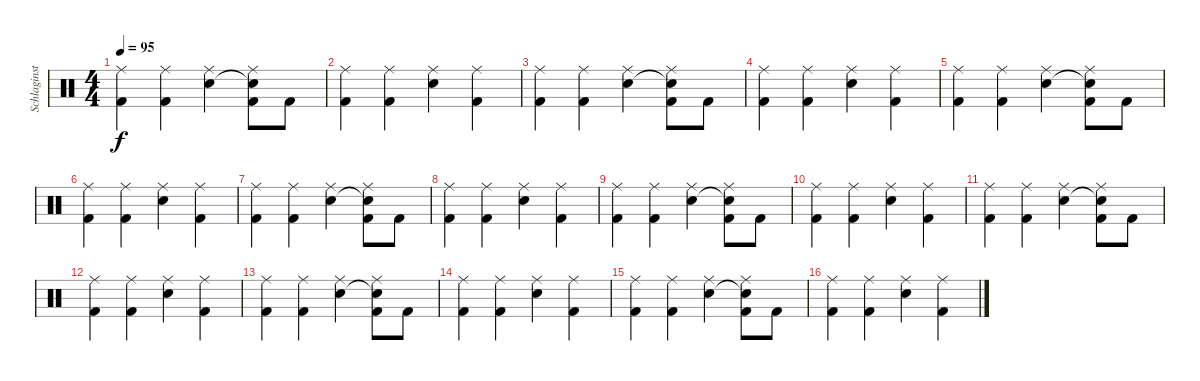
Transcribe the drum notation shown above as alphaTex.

\track ("Schlaginstrumente - Auswahl" "Schlaginst") {instrument percussion}
\staff {score}
\articulation defaults
\ts (4 4)
\tempo 95
\clef neutral
\ks c
("Ride (middle)" "Kick (hit) 2").4{dy f} ("Ride (middle)" "Kick (hit) 2").4 ("Ride (middle)" "Electric Snare (hit)").4 ("Ride (middle)" "Snare (hit)"{t} "Kick (hit) 2").8 "Kick (hit) 2".8 |
("Ride (middle)" "Kick (hit) 2").4 ("Ride (middle)" "Kick (hit) 2").4 ("Ride (middle)" "Electric Snare (hit)").4 ("Ride (middle)" "Kick (hit) 2").4 |
("Ride (middle)" "Kick (hit) 2").4 ("Ride (middle)" "Kick (hit) 2").4 ("Ride (middle)" "Electric Snare (hit)").4 ("Ride (middle)" "Snare (hit)"{t} "Kick (hit) 2").8 "Kick (hit) 2".8 |
("Ride (middle)" "Kick (hit) 2").4 ("Ride (middle)" "Kick (hit) 2").4 ("Ride (middle)" "Electric Snare (hit)").4 ("Ride (middle)" "Kick (hit) 2").4 |
("Ride (middle)" "Kick (hit) 2").4 ("Ride (middle)" "Kick (hit) 2").4 ("Ride (middle)" "Electric Snare (hit)").4 ("Ride (middle)" "Snare (hit)"{t} "Kick (hit) 2").8 "Kick (hit) 2".8 |
("Ride (middle)" "Kick (hit) 2").4 ("Ride (middle)" "Kick (hit) 2").4 ("Ride (middle)" "Electric Snare (hit)").4 ("Ride (middle)" "Kick (hit) 2").4 |
("Ride (middle)" "Kick (hit) 2").4 ("Ride (middle)" "Kick (hit) 2").4 ("Ride (middle)" "Electric Snare (hit)").4 ("Ride (middle)" "Snare (hit)"{t} "Kick (hit) 2").8 "Kick (hit) 2".8 |
("Ride (middle)" "Kick (hit) 2").4 ("Ride (middle)" "Kick (hit) 2").4 ("Ride (middle)" "Electric Snare (hit)").4 ("Ride (middle)" "Kick (hit) 2").4 |
("Ride (middle)" "Kick (hit) 2").4 ("Ride (middle)" "Kick (hit) 2").4 ("Ride (middle)" "Electric Snare (hit)").4 ("Ride (middle)" "Snare (hit)"{t} "Kick (hit) 2").8 "Kick (hit) 2".8 |
("Ride (middle)" "Kick (hit) 2").4 ("Ride (middle)" "Kick (hit) 2").4 ("Ride (middle)" "Electric Snare (hit)").4 ("Ride (middle)" "Kick (hit) 2").4 |
("Ride (middle)" "Kick (hit) 2").4 ("Ride (middle)" "Kick (hit) 2").4 ("Ride (middle)" "Electric Snare (hit)").4 ("Ride (middle)" "Snare (hit)"{t} "Kick (hit) 2").8 "Kick (hit) 2".8 |
("Ride (middle)" "Kick (hit) 2").4 ("Ride (middle)" "Kick (hit) 2").4 ("Ride (middle)" "Electric Snare (hit)").4 ("Ride (middle)" "Kick (hit) 2").4 |
("Ride (middle)" "Kick (hit) 2").4 ("Ride (middle)" "Kick (hit) 2").4 ("Ride (middle)" "Electric Snare (hit)").4 ("Ride (middle)" "Snare (hit)"{t} "Kick (hit) 2").8 "Kick (hit) 2".8 |
("Ride (middle)" "Kick (hit) 2").4 ("Ride (middle)" "Kick (hit) 2").4 ("Ride (middle)" "Electric Snare (hit)").4 ("Ride (middle)" "Kick (hit) 2").4 |
("Ride (middle)" "Kick (hit) 2").4 ("Ride (middle)" "Kick (hit) 2").4 ("Ride (middle)" "Electric Snare (hit)").4 ("Ride (middle)" "Snare (hit)"{t} "Kick (hit) 2").8 "Kick (hit) 2".8 |
("Ride (middle)" "Kick (hit) 2").4 ("Ride (middle)" "Kick (hit) 2").4 ("Ride (middle)" "Electric Snare (hit)").4 ("Ride (middle)" "Kick (hit) 2").4
